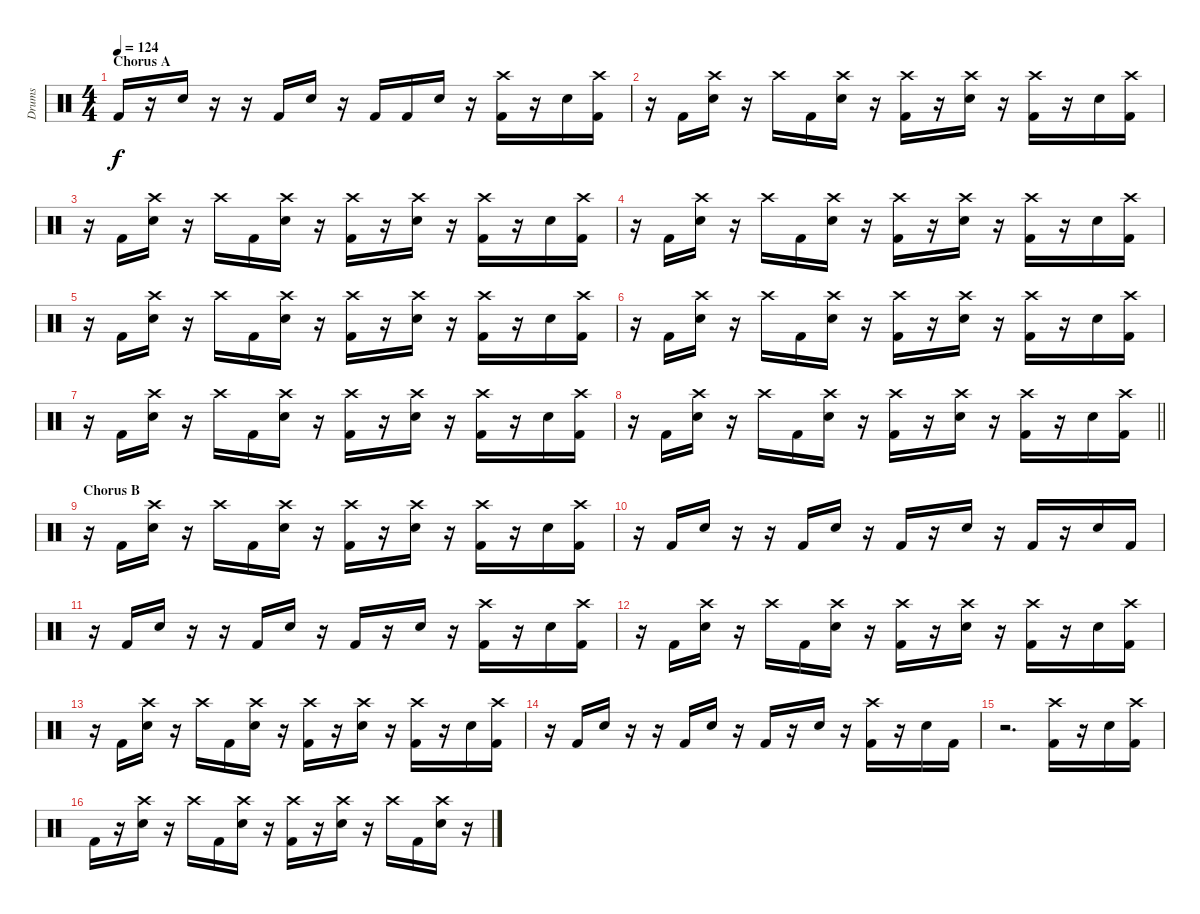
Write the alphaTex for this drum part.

\track ("Drums" "Drums") {instrument percussion}
\staff {score}
\articulation defaults
\ts (4 4)
\section ("" "Chorus A")
\tempo 124
\clef neutral
\ks c "Kick (hit) 2".16{dy f}
r.16 "Snare (hit) 2".16 r.16 r.16 "Kick (hit) 2".16 "Snare (hit) 2".16 r.16 "Kick (hit) 2".16 "Kick (hit) 2".16 "Snare (hit) 2".16 r.16 ("Crash high (hit)" "Kick (hit) 2").16 r.16 "Snare (hit) 2".16 ("Crash high (hit)" "Kick (hit) 2").16 |
r.16 "Kick (hit) 2".16 ("Crash high (hit)" "Snare (hit) 2").16 r.16 "Crash high (hit)".16 "Kick (hit) 2".16 ("Crash high (hit)" "Snare (hit) 2").16 r.16 ("Crash high (hit)" "Kick (hit) 2").16 r.16 ("Crash high (hit)" "Snare (hit) 2").16 r.16 ("Crash high (hit)" "Kick (hit) 2").16 r.16 "Snare (hit) 2".16 ("Crash high (hit)" "Kick (hit) 2").16 |
r.16 "Kick (hit) 2".16 ("Crash high (hit)" "Snare (hit) 2").16 r.16 "Crash high (hit)".16 "Kick (hit) 2".16 ("Crash high (hit)" "Snare (hit) 2").16 r.16 ("Crash high (hit)" "Kick (hit) 2").16 r.16 ("Crash high (hit)" "Snare (hit) 2").16 r.16 ("Crash high (hit)" "Kick (hit) 2").16 r.16 "Snare (hit) 2".16 ("Crash high (hit)" "Kick (hit) 2").16 |
r.16 "Kick (hit) 2".16 ("Crash high (hit)" "Snare (hit) 2").16 r.16 "Crash high (hit)".16 "Kick (hit) 2".16 ("Crash high (hit)" "Snare (hit) 2").16 r.16 ("Crash high (hit)" "Kick (hit) 2").16 r.16 ("Crash high (hit)" "Snare (hit) 2").16 r.16 ("Crash high (hit)" "Kick (hit) 2").16 r.16 "Snare (hit) 2".16 ("Crash high (hit)" "Kick (hit) 2").16 |
r.16 "Kick (hit) 2".16 ("Crash high (hit)" "Snare (hit) 2").16 r.16 "Crash high (hit)".16 "Kick (hit) 2".16 ("Crash high (hit)" "Snare (hit) 2").16 r.16 ("Crash high (hit)" "Kick (hit) 2").16 r.16 ("Crash high (hit)" "Snare (hit) 2").16 r.16 ("Crash high (hit)" "Kick (hit) 2").16 r.16 "Snare (hit) 2".16 ("Crash high (hit)" "Kick (hit) 2").16 |
r.16 "Kick (hit) 2".16 ("Crash high (hit)" "Snare (hit) 2").16 r.16 "Crash high (hit)".16 "Kick (hit) 2".16 ("Crash high (hit)" "Snare (hit) 2").16 r.16 ("Crash high (hit)" "Kick (hit) 2").16 r.16 ("Crash high (hit)" "Snare (hit) 2").16 r.16 ("Crash high (hit)" "Kick (hit) 2").16 r.16 "Snare (hit) 2".16 ("Crash high (hit)" "Kick (hit) 2").16 |
r.16 "Kick (hit) 2".16 ("Crash high (hit)" "Snare (hit) 2").16 r.16 "Crash high (hit)".16 "Kick (hit) 2".16 ("Crash high (hit)" "Snare (hit) 2").16 r.16 ("Crash high (hit)" "Kick (hit) 2").16 r.16 ("Crash high (hit)" "Snare (hit) 2").16 r.16 ("Crash high (hit)" "Kick (hit) 2").16 r.16 "Snare (hit) 2".16 ("Crash high (hit)" "Kick (hit) 2").16 |
\barLineRight lightlight
r.16 "Kick (hit) 2".16 ("Crash high (hit)" "Snare (hit) 2").16 r.16 "Crash high (hit)".16 "Kick (hit) 2".16 ("Crash high (hit)" "Snare (hit) 2").16 r.16 ("Crash high (hit)" "Kick (hit) 2").16 r.16 ("Crash high (hit)" "Snare (hit) 2").16 r.16 ("Crash high (hit)" "Kick (hit) 2").16 r.16 "Snare (hit) 2".16 ("Crash high (hit)" "Kick (hit) 2").16 |
\section ("" "Chorus B")
r.16 "Kick (hit) 2".16 ("Crash high (hit)" "Snare (hit) 2").16 r.16 "Crash high (hit)".16 "Kick (hit) 2".16 ("Crash high (hit)" "Snare (hit) 2").16 r.16 ("Crash high (hit)" "Kick (hit) 2").16 r.16 ("Crash high (hit)" "Snare (hit) 2").16 r.16 ("Crash high (hit)" "Kick (hit) 2").16 r.16 "Snare (hit) 2".16 ("Crash high (hit)" "Kick (hit) 2").16 |
r.16 "Kick (hit) 2".16 "Snare (hit) 2".16 r.16 r.16 "Kick (hit) 2".16 "Snare (hit) 2".16 r.16 "Kick (hit) 2".16 r.16 "Snare (hit) 2".16 r.16 "Kick (hit) 2".16 r.16 "Snare (hit) 2".16 "Kick (hit) 2".16 |
r.16 "Kick (hit) 2".16 "Snare (hit) 2".16 r.16 r.16 "Kick (hit) 2".16 "Snare (hit) 2".16 r.16 "Kick (hit) 2".16 r.16 "Snare (hit) 2".16 r.16 ("Crash high (hit)" "Kick (hit) 2").16 r.16 "Snare (hit) 2".16 ("Crash high (hit)" "Kick (hit) 2").16 |
r.16 "Kick (hit) 2".16 ("Crash high (hit)" "Snare (hit) 2").16 r.16 "Crash high (hit)".16 "Kick (hit) 2".16 ("Crash high (hit)" "Snare (hit) 2").16 r.16 ("Crash high (hit)" "Kick (hit) 2").16 r.16 ("Crash high (hit)" "Snare (hit) 2").16 r.16 ("Crash high (hit)" "Kick (hit) 2").16 r.16 "Snare (hit) 2".16 ("Crash high (hit)" "Kick (hit) 2").16 |
r.16 "Kick (hit) 2".16 ("Crash high (hit)" "Snare (hit) 2").16 r.16 "Crash high (hit)".16 "Kick (hit) 2".16 ("Crash high (hit)" "Snare (hit) 2").16 r.16 ("Crash high (hit)" "Kick (hit) 2").16 r.16 ("Crash high (hit)" "Snare (hit) 2").16 r.16 ("Crash high (hit)" "Kick (hit) 2").16 r.16 "Snare (hit) 2".16 ("Crash high (hit)" "Kick (hit) 2").16 |
r.16 "Kick (hit) 2".16 "Snare (hit) 2".16 r.16 r.16 "Kick (hit) 2".16 "Snare (hit) 2".16 r.16 "Kick (hit) 2".16 r.16 "Snare (hit) 2".16 r.16 ("Crash high (hit)" "Kick (hit) 2").16 r.16 "Snare (hit) 2".16 "Kick (hit) 2".16 |
r.2{d} ("Crash high (hit)" "Kick (hit) 2").16 r.16 "Snare (hit) 2".16 ("Crash high (hit)" "Kick (hit) 2").16 |
"Kick (hit) 2".16 r.16 ("Crash high (hit)" "Snare (hit) 2").16 r.16 "Crash high (hit)".16 "Kick (hit) 2".16 ("Crash high (hit)" "Snare (hit) 2").16 r.16 ("Crash high (hit)" "Kick (hit) 2").16 r.16 ("Crash high (hit)" "Snare (hit) 2").16 r.16 "Crash high (hit)".16 "Kick (hit) 2".16 ("Crash high (hit)" "Snare (hit) 2").16 r.16
